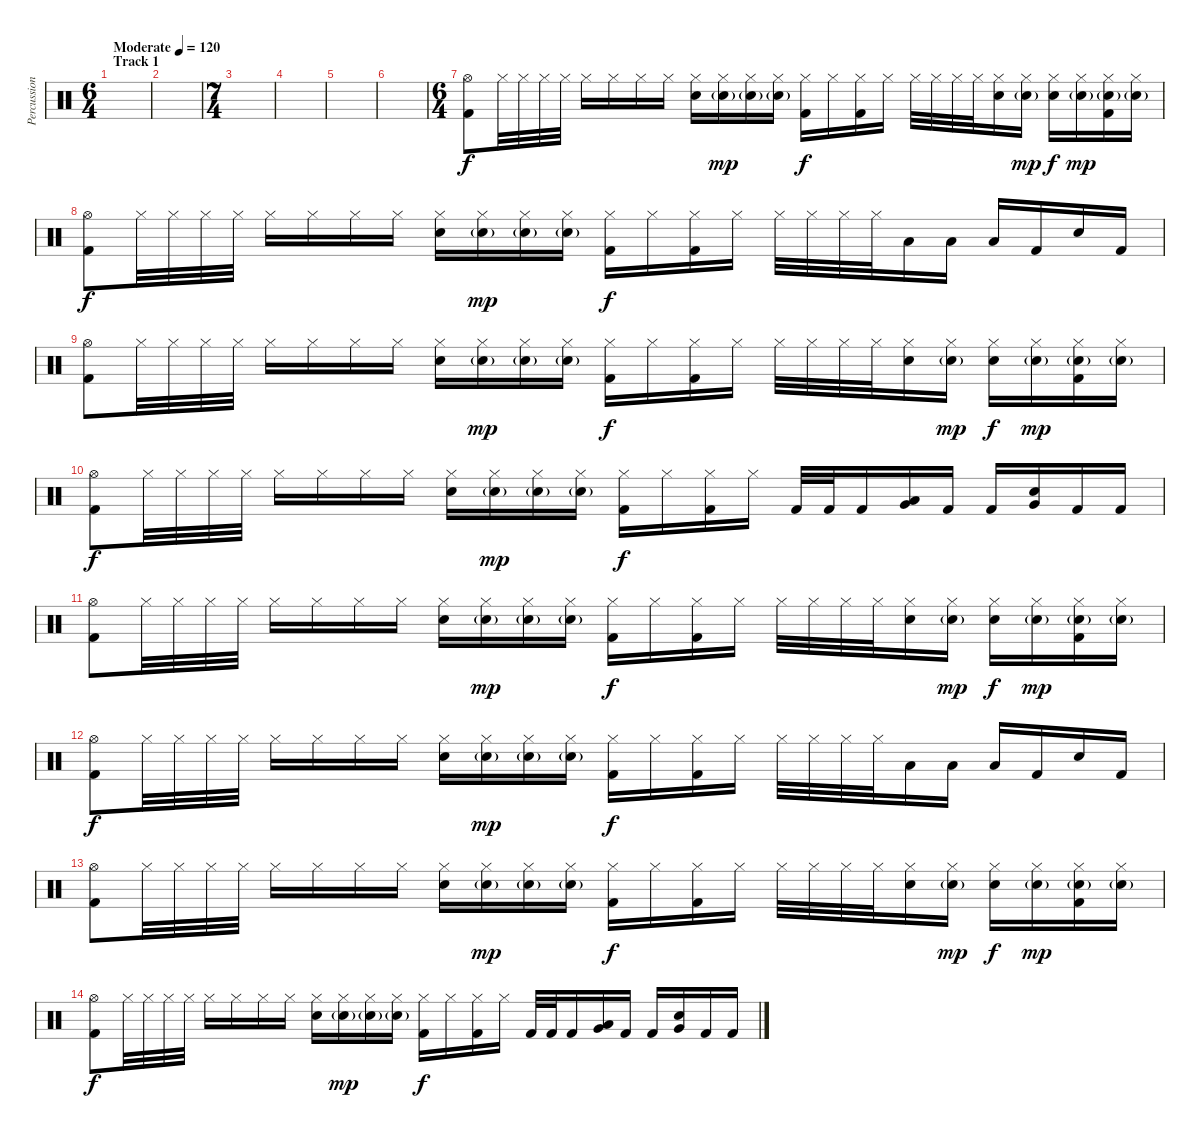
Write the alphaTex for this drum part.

\track ("Percussion" "Percussion") {instrument percussion}
\staff {score}
\articulation defaults
\ts (6 4)
\section ("" "Track 1")
\tempo (120 "Moderate")
\clef neutral
\ks c
|
|
\ts (7 4)
|
|
|
|
\ts (6 4)
("Hi-Hat (open)" "Kick (hit) 2").8 "Hi-Hat (closed)".32 "Hi-Hat (closed)".32 "Hi-Hat (closed)".32 "Hi-Hat (closed)".32 "Hi-Hat (closed)".16 "Hi-Hat (closed)".16 "Hi-Hat (closed)".16 "Hi-Hat (closed)".16 ("Hi-Hat (closed)" "Electric Snare (hit)").16 ("Hi-Hat (closed)" "Electric Snare (hit)"{g}).16{dy mp} ("Hi-Hat (closed)" "Electric Snare (hit)"{g}).16 ("Hi-Hat (closed)" "Electric Snare (hit)"{g}).16 ("Hi-Hat (closed)" "Kick (hit) 2").16{dy f} "Hi-Hat (closed)".16 ("Hi-Hat (closed)" "Kick (hit) 2").16 "Hi-Hat (closed)".16 "Hi-Hat (closed)".32 "Hi-Hat (closed)".32 "Hi-Hat (closed)".32 "Hi-Hat (closed)".32 ("Hi-Hat (closed)" "Electric Snare (hit)").16 ("Hi-Hat (closed)" "Electric Snare (hit)"{g}).16{dy mp} ("Hi-Hat (closed)" "Electric Snare (hit)").16{dy f} ("Hi-Hat (closed)" "Electric Snare (hit)"{g}).16{dy mp} ("Hi-Hat (closed)" "Electric Snare (hit)"{g} "Kick (hit) 2").16 ("Hi-Hat (closed)" "Electric Snare (hit)"{g}).16 |
("Hi-Hat (open)" "Kick (hit) 2").8{dy f} "Hi-Hat (closed)".32 "Hi-Hat (closed)".32 "Hi-Hat (closed)".32 "Hi-Hat (closed)".32 "Hi-Hat (closed)".16 "Hi-Hat (closed)".16 "Hi-Hat (closed)".16 "Hi-Hat (closed)".16 ("Hi-Hat (closed)" "Electric Snare (hit)").16 ("Hi-Hat (closed)" "Electric Snare (hit)"{g}).16{dy mp} ("Hi-Hat (closed)" "Electric Snare (hit)"{g}).16 ("Hi-Hat (closed)" "Electric Snare (hit)"{g}).16 ("Hi-Hat (closed)" "Kick (hit) 2").16{dy f} "Hi-Hat (closed)".16 ("Hi-Hat (closed)" "Kick (hit) 2").16 "Hi-Hat (closed)".16 "Hi-Hat (closed)".32 "Hi-Hat (closed)".32 "Hi-Hat (closed)".32 "Hi-Hat (closed)".32 "Low Tom (hit)".16 "Low Tom (hit)".16 "Low Tom (hit)".16 "Kick (hit) 2".16 "Electric Snare (hit)".16 "Kick (hit) 2".16 |
("Hi-Hat (open)" "Kick (hit) 2").8 "Hi-Hat (closed)".32 "Hi-Hat (closed)".32 "Hi-Hat (closed)".32 "Hi-Hat (closed)".32 "Hi-Hat (closed)".16 "Hi-Hat (closed)".16 "Hi-Hat (closed)".16 "Hi-Hat (closed)".16 ("Hi-Hat (closed)" "Electric Snare (hit)").16 ("Hi-Hat (closed)" "Electric Snare (hit)"{g}).16{dy mp} ("Hi-Hat (closed)" "Electric Snare (hit)"{g}).16 ("Hi-Hat (closed)" "Electric Snare (hit)"{g}).16 ("Hi-Hat (closed)" "Kick (hit) 2").16{dy f} "Hi-Hat (closed)".16 ("Hi-Hat (closed)" "Kick (hit) 2").16 "Hi-Hat (closed)".16 "Hi-Hat (closed)".32 "Hi-Hat (closed)".32 "Hi-Hat (closed)".32 "Hi-Hat (closed)".32 ("Hi-Hat (closed)" "Electric Snare (hit)").16 ("Hi-Hat (closed)" "Electric Snare (hit)"{g}).16{dy mp} ("Hi-Hat (closed)" "Electric Snare (hit)").16{dy f} ("Hi-Hat (closed)" "Electric Snare (hit)"{g}).16{dy mp} ("Hi-Hat (closed)" "Electric Snare (hit)"{g} "Kick (hit) 2").16 ("Hi-Hat (closed)" "Electric Snare (hit)"{g}).16 |
("Hi-Hat (open)" "Kick (hit) 2").8{dy f} "Hi-Hat (closed)".32 "Hi-Hat (closed)".32 "Hi-Hat (closed)".32 "Hi-Hat (closed)".32 "Hi-Hat (closed)".16 "Hi-Hat (closed)".16 "Hi-Hat (closed)".16 "Hi-Hat (closed)".16 ("Hi-Hat (closed)" "Electric Snare (hit)").16 ("Hi-Hat (closed)" "Electric Snare (hit)"{g}).16{dy mp} ("Hi-Hat (closed)" "Electric Snare (hit)"{g}).16 ("Hi-Hat (closed)" "Electric Snare (hit)"{g}).16 ("Hi-Hat (closed)" "Kick (hit) 2").16{dy f} "Hi-Hat (closed)".16 ("Hi-Hat (closed)" "Kick (hit) 2").16 "Hi-Hat (closed)".16 "Kick (hit) 2".32 "Kick (hit) 2".32 "Kick (hit) 2".16 ("Very Low Tom (hit)" "Low Floor Tom (hit)").16 "Kick (hit) 2".16 "Kick (hit) 2".16 ("Electric Snare (hit)" "Very Low Tom (hit)").16 "Kick (hit) 2".16 "Kick (hit) 2".16 |
("Hi-Hat (open)" "Kick (hit) 2").8 "Hi-Hat (closed)".32 "Hi-Hat (closed)".32 "Hi-Hat (closed)".32 "Hi-Hat (closed)".32 "Hi-Hat (closed)".16 "Hi-Hat (closed)".16 "Hi-Hat (closed)".16 "Hi-Hat (closed)".16 ("Hi-Hat (closed)" "Electric Snare (hit)").16 ("Hi-Hat (closed)" "Electric Snare (hit)"{g}).16{dy mp} ("Hi-Hat (closed)" "Electric Snare (hit)"{g}).16 ("Hi-Hat (closed)" "Electric Snare (hit)"{g}).16 ("Hi-Hat (closed)" "Kick (hit) 2").16{dy f} "Hi-Hat (closed)".16 ("Hi-Hat (closed)" "Kick (hit) 2").16 "Hi-Hat (closed)".16 "Hi-Hat (closed)".32 "Hi-Hat (closed)".32 "Hi-Hat (closed)".32 "Hi-Hat (closed)".32 ("Hi-Hat (closed)" "Electric Snare (hit)").16 ("Hi-Hat (closed)" "Electric Snare (hit)"{g}).16{dy mp} ("Hi-Hat (closed)" "Electric Snare (hit)").16{dy f} ("Hi-Hat (closed)" "Electric Snare (hit)"{g}).16{dy mp} ("Hi-Hat (closed)" "Electric Snare (hit)"{g} "Kick (hit) 2").16 ("Hi-Hat (closed)" "Electric Snare (hit)"{g}).16 |
("Hi-Hat (open)" "Kick (hit) 2").8{dy f} "Hi-Hat (closed)".32 "Hi-Hat (closed)".32 "Hi-Hat (closed)".32 "Hi-Hat (closed)".32 "Hi-Hat (closed)".16 "Hi-Hat (closed)".16 "Hi-Hat (closed)".16 "Hi-Hat (closed)".16 ("Hi-Hat (closed)" "Electric Snare (hit)").16 ("Hi-Hat (closed)" "Electric Snare (hit)"{g}).16{dy mp} ("Hi-Hat (closed)" "Electric Snare (hit)"{g}).16 ("Hi-Hat (closed)" "Electric Snare (hit)"{g}).16 ("Hi-Hat (closed)" "Kick (hit) 2").16{dy f} "Hi-Hat (closed)".16 ("Hi-Hat (closed)" "Kick (hit) 2").16 "Hi-Hat (closed)".16 "Hi-Hat (closed)".32 "Hi-Hat (closed)".32 "Hi-Hat (closed)".32 "Hi-Hat (closed)".32 "Low Tom (hit)".16 "Low Tom (hit)".16 "Low Tom (hit)".16 "Kick (hit) 2".16 "Electric Snare (hit)".16 "Kick (hit) 2".16 |
("Hi-Hat (open)" "Kick (hit) 2").8 "Hi-Hat (closed)".32 "Hi-Hat (closed)".32 "Hi-Hat (closed)".32 "Hi-Hat (closed)".32 "Hi-Hat (closed)".16 "Hi-Hat (closed)".16 "Hi-Hat (closed)".16 "Hi-Hat (closed)".16 ("Hi-Hat (closed)" "Electric Snare (hit)").16 ("Hi-Hat (closed)" "Electric Snare (hit)"{g}).16{dy mp} ("Hi-Hat (closed)" "Electric Snare (hit)"{g}).16 ("Hi-Hat (closed)" "Electric Snare (hit)"{g}).16 ("Hi-Hat (closed)" "Kick (hit) 2").16{dy f} "Hi-Hat (closed)".16 ("Hi-Hat (closed)" "Kick (hit) 2").16 "Hi-Hat (closed)".16 "Hi-Hat (closed)".32 "Hi-Hat (closed)".32 "Hi-Hat (closed)".32 "Hi-Hat (closed)".32 ("Hi-Hat (closed)" "Electric Snare (hit)").16 ("Hi-Hat (closed)" "Electric Snare (hit)"{g}).16{dy mp} ("Hi-Hat (closed)" "Electric Snare (hit)").16{dy f} ("Hi-Hat (closed)" "Electric Snare (hit)"{g}).16{dy mp} ("Hi-Hat (closed)" "Electric Snare (hit)"{g} "Kick (hit) 2").16 ("Hi-Hat (closed)" "Electric Snare (hit)"{g}).16 |
("Hi-Hat (open)" "Kick (hit) 2").8{dy f} "Hi-Hat (closed)".32 "Hi-Hat (closed)".32 "Hi-Hat (closed)".32 "Hi-Hat (closed)".32 "Hi-Hat (closed)".16 "Hi-Hat (closed)".16 "Hi-Hat (closed)".16 "Hi-Hat (closed)".16 ("Hi-Hat (closed)" "Electric Snare (hit)").16 ("Hi-Hat (closed)" "Electric Snare (hit)"{g}).16{dy mp} ("Hi-Hat (closed)" "Electric Snare (hit)"{g}).16 ("Hi-Hat (closed)" "Electric Snare (hit)"{g}).16 ("Hi-Hat (closed)" "Kick (hit) 2").16{dy f} "Hi-Hat (closed)".16 ("Hi-Hat (closed)" "Kick (hit) 2").16 "Hi-Hat (closed)".16 "Kick (hit) 2".32 "Kick (hit) 2".32 "Kick (hit) 2".16 ("Very Low Tom (hit)" "Low Floor Tom (hit)").16 "Kick (hit) 2".16 "Kick (hit) 2".16 ("Electric Snare (hit)" "Very Low Tom (hit)").16 "Kick (hit) 2".16 "Kick (hit) 2".16
